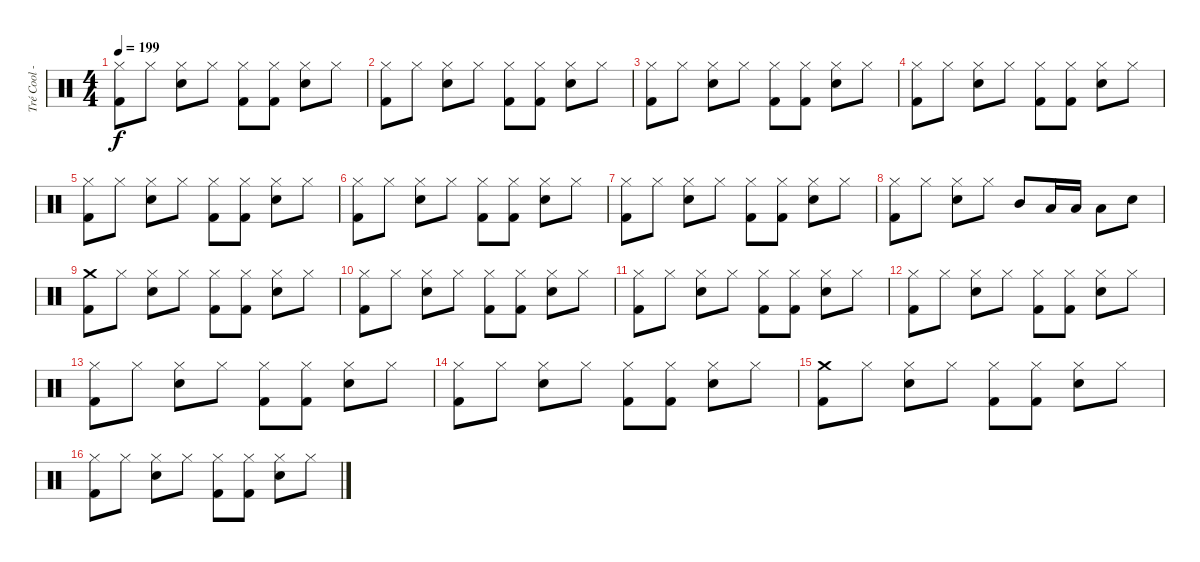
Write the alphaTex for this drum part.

\track ("Tré Cool - Drums" "Tré Cool -") {instrument percussion}
\staff {score}
\articulation defaults
\ts (4 4)
\tempo 199
\clef neutral
\ks c
("Hi-Hat (closed)" "Kick (hit) 2").8{dy f} "Hi-Hat (closed)".8 ("Hi-Hat (closed)" "Electric Snare (hit)").8 "Hi-Hat (closed)".8 ("Hi-Hat (closed)" "Kick (hit) 2").8 ("Hi-Hat (closed)" "Kick (hit) 2").8 ("Hi-Hat (closed)" "Electric Snare (hit)").8 "Hi-Hat (closed)".8 |
("Hi-Hat (closed)" "Kick (hit) 2").8 "Hi-Hat (closed)".8 ("Hi-Hat (closed)" "Electric Snare (hit)").8 "Hi-Hat (closed)".8 ("Hi-Hat (closed)" "Kick (hit) 2").8 ("Hi-Hat (closed)" "Kick (hit) 2").8 ("Hi-Hat (closed)" "Electric Snare (hit)").8 "Hi-Hat (closed)".8 |
("Hi-Hat (closed)" "Kick (hit) 2").8 "Hi-Hat (closed)".8 ("Hi-Hat (closed)" "Electric Snare (hit)").8 "Hi-Hat (closed)".8 ("Hi-Hat (closed)" "Kick (hit) 2").8 ("Hi-Hat (closed)" "Kick (hit) 2").8 ("Hi-Hat (closed)" "Electric Snare (hit)").8 "Hi-Hat (closed)".8 |
("Hi-Hat (closed)" "Kick (hit) 2").8 "Hi-Hat (closed)".8 ("Hi-Hat (closed)" "Electric Snare (hit)").8 "Hi-Hat (closed)".8 ("Hi-Hat (closed)" "Kick (hit) 2").8 ("Hi-Hat (closed)" "Kick (hit) 2").8 ("Hi-Hat (closed)" "Electric Snare (hit)").8 "Hi-Hat (closed)".8 |
("Hi-Hat (closed)" "Kick (hit) 2").8 "Hi-Hat (closed)".8 ("Hi-Hat (closed)" "Electric Snare (hit)").8 "Hi-Hat (closed)".8 ("Hi-Hat (closed)" "Kick (hit) 2").8 ("Hi-Hat (closed)" "Kick (hit) 2").8 ("Hi-Hat (closed)" "Electric Snare (hit)").8 "Hi-Hat (closed)".8 |
("Hi-Hat (closed)" "Kick (hit) 2").8 "Hi-Hat (closed)".8 ("Hi-Hat (closed)" "Electric Snare (hit)").8 "Hi-Hat (closed)".8 ("Hi-Hat (closed)" "Kick (hit) 2").8 ("Hi-Hat (closed)" "Kick (hit) 2").8 ("Hi-Hat (closed)" "Electric Snare (hit)").8 "Hi-Hat (closed)".8 |
("Hi-Hat (closed)" "Kick (hit) 2").8 "Hi-Hat (closed)".8 ("Hi-Hat (closed)" "Electric Snare (hit)").8 "Hi-Hat (closed)".8 ("Hi-Hat (closed)" "Kick (hit) 2").8 ("Hi-Hat (closed)" "Kick (hit) 2").8 ("Hi-Hat (closed)" "Electric Snare (hit)").8 "Hi-Hat (closed)".8 |
("Hi-Hat (closed)" "Kick (hit) 2").8 "Hi-Hat (closed)".8 ("Hi-Hat (closed)" "Electric Snare (hit)").8 "Hi-Hat (closed)".8 "Mid Tom (hit)".8 "Low Tom (hit)".16 "Low Tom (hit)".16 "Low Tom (hit)".8 "Electric Snare (hit)".8 |
("Crash medium (hit)" "Kick (hit) 2").8 "Hi-Hat (closed)".8 ("Hi-Hat (closed)" "Electric Snare (hit)").8 "Hi-Hat (closed)".8 ("Hi-Hat (closed)" "Kick (hit) 2").8 ("Hi-Hat (closed)" "Kick (hit) 2").8 ("Hi-Hat (closed)" "Electric Snare (hit)").8 "Hi-Hat (closed)".8 |
("Hi-Hat (closed)" "Kick (hit) 2").8 "Hi-Hat (closed)".8 ("Hi-Hat (closed)" "Electric Snare (hit)").8 "Hi-Hat (closed)".8 ("Hi-Hat (closed)" "Kick (hit) 2").8 ("Hi-Hat (closed)" "Kick (hit) 2").8 ("Hi-Hat (closed)" "Electric Snare (hit)").8 "Hi-Hat (closed)".8 |
("Hi-Hat (closed)" "Kick (hit) 2").8 "Hi-Hat (closed)".8 ("Hi-Hat (closed)" "Electric Snare (hit)").8 "Hi-Hat (closed)".8 ("Hi-Hat (closed)" "Kick (hit) 2").8 ("Hi-Hat (closed)" "Kick (hit) 2").8 ("Hi-Hat (closed)" "Electric Snare (hit)").8 "Hi-Hat (closed)".8 |
("Hi-Hat (closed)" "Kick (hit) 2").8 "Hi-Hat (closed)".8 ("Hi-Hat (closed)" "Electric Snare (hit)").8 "Hi-Hat (closed)".8 ("Hi-Hat (closed)" "Kick (hit) 2").8 ("Hi-Hat (closed)" "Kick (hit) 2").8 ("Hi-Hat (closed)" "Electric Snare (hit)").8 "Hi-Hat (closed)".8 |
("Hi-Hat (closed)" "Kick (hit) 2").8 "Hi-Hat (closed)".8 ("Hi-Hat (closed)" "Electric Snare (hit)").8 "Hi-Hat (closed)".8 ("Hi-Hat (closed)" "Kick (hit) 2").8 ("Hi-Hat (closed)" "Kick (hit) 2").8 ("Hi-Hat (closed)" "Electric Snare (hit)").8 "Hi-Hat (closed)".8 |
("Hi-Hat (closed)" "Kick (hit) 2").8 "Hi-Hat (closed)".8 ("Hi-Hat (closed)" "Electric Snare (hit)").8 "Hi-Hat (closed)".8 ("Hi-Hat (closed)" "Kick (hit) 2").8 ("Hi-Hat (closed)" "Kick (hit) 2").8 ("Hi-Hat (closed)" "Electric Snare (hit)").8 "Hi-Hat (closed)".8 |
("Crash medium (hit)" "Kick (hit) 2").8 "Hi-Hat (closed)".8 ("Hi-Hat (closed)" "Electric Snare (hit)").8 "Hi-Hat (closed)".8 ("Hi-Hat (closed)" "Kick (hit) 2").8 ("Hi-Hat (closed)" "Kick (hit) 2").8 ("Hi-Hat (closed)" "Electric Snare (hit)").8 "Hi-Hat (closed)".8 |
("Hi-Hat (closed)" "Kick (hit) 2").8 "Hi-Hat (closed)".8 ("Hi-Hat (closed)" "Electric Snare (hit)").8 "Hi-Hat (closed)".8 ("Hi-Hat (closed)" "Kick (hit) 2").8 ("Hi-Hat (closed)" "Kick (hit) 2").8 ("Hi-Hat (closed)" "Electric Snare (hit)").8 "Hi-Hat (closed)".8
